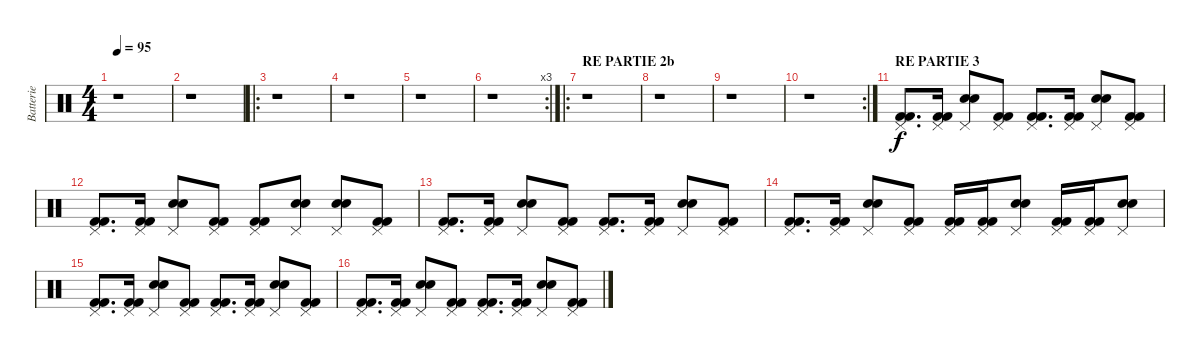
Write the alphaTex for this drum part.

\track ("Batterie" "Batterie") {instrument percussion}
\staff {score}
\articulation defaults
\ts (4 4)
\tempo 95
\clef neutral
\ks c
r.1{dy f} |
r.1 |
\ro
r.1 |
r.1 |
r.1 |
\rc 3
r.1 |
\ro
\section ("" "RE PARTIE 2b")
r.1 |
r.1 |
r.1 |
\rc 2
r.1 |
\section ("" "RE PARTIE 3")
("Pedal Hi-Hat (hit)" "Kick (hit) 2" "Kick (hit) 2").8{d} ("Pedal Hi-Hat (hit)" "Kick (hit) 2" "Kick (hit) 2").16 ("Pedal Hi-Hat (hit)" "Electric Snare (hit)" "Electric Snare (hit)").8 ("Pedal Hi-Hat (hit)" "Kick (hit) 2" "Kick (hit) 2").8 ("Pedal Hi-Hat (hit)" "Kick (hit) 2" "Kick (hit) 2").8{d} ("Pedal Hi-Hat (hit)" "Kick (hit) 2" "Kick (hit) 2").16 ("Pedal Hi-Hat (hit)" "Electric Snare (hit)" "Electric Snare (hit)").8 ("Pedal Hi-Hat (hit)" "Kick (hit) 2" "Kick (hit) 2").8 |
("Pedal Hi-Hat (hit)" "Kick (hit) 2" "Kick (hit) 2").8{d} ("Pedal Hi-Hat (hit)" "Kick (hit) 2" "Kick (hit) 2").16 ("Pedal Hi-Hat (hit)" "Electric Snare (hit)" "Electric Snare (hit)").8 ("Pedal Hi-Hat (hit)" "Kick (hit) 2" "Kick (hit) 2").8 ("Pedal Hi-Hat (hit)" "Kick (hit) 2" "Kick (hit) 2").8 ("Pedal Hi-Hat (hit)" "Electric Snare (hit)" "Electric Snare (hit)").8 ("Pedal Hi-Hat (hit)" "Electric Snare (hit)" "Electric Snare (hit)").8 ("Pedal Hi-Hat (hit)" "Kick (hit) 2" "Kick (hit) 2").8 |
("Pedal Hi-Hat (hit)" "Kick (hit) 2" "Kick (hit) 2").8{d} ("Pedal Hi-Hat (hit)" "Kick (hit) 2" "Kick (hit) 2").16 ("Pedal Hi-Hat (hit)" "Electric Snare (hit)" "Electric Snare (hit)").8 ("Pedal Hi-Hat (hit)" "Kick (hit) 2" "Kick (hit) 2").8 ("Pedal Hi-Hat (hit)" "Kick (hit) 2" "Kick (hit) 2").8{d} ("Pedal Hi-Hat (hit)" "Kick (hit) 2" "Kick (hit) 2").16 ("Pedal Hi-Hat (hit)" "Electric Snare (hit)" "Electric Snare (hit)").8 ("Pedal Hi-Hat (hit)" "Kick (hit) 2" "Kick (hit) 2").8 |
("Pedal Hi-Hat (hit)" "Kick (hit) 2" "Kick (hit) 2").8{d} ("Pedal Hi-Hat (hit)" "Kick (hit) 2" "Kick (hit) 2").16 ("Pedal Hi-Hat (hit)" "Electric Snare (hit)" "Electric Snare (hit)").8 ("Pedal Hi-Hat (hit)" "Kick (hit) 2" "Kick (hit) 2").8 ("Pedal Hi-Hat (hit)" "Kick (hit) 2" "Kick (hit) 2").16 ("Pedal Hi-Hat (hit)" "Kick (hit) 2" "Kick (hit) 2").16 ("Pedal Hi-Hat (hit)" "Electric Snare (hit)" "Electric Snare (hit)").8 ("Pedal Hi-Hat (hit)" "Kick (hit) 2" "Kick (hit) 2").16 ("Pedal Hi-Hat (hit)" "Kick (hit) 2" "Kick (hit) 2").16 ("Pedal Hi-Hat (hit)" "Electric Snare (hit)" "Electric Snare (hit)").8 |
("Pedal Hi-Hat (hit)" "Kick (hit) 2" "Kick (hit) 2").8{d} ("Pedal Hi-Hat (hit)" "Kick (hit) 2" "Kick (hit) 2").16 ("Pedal Hi-Hat (hit)" "Electric Snare (hit)" "Electric Snare (hit)").8 ("Pedal Hi-Hat (hit)" "Kick (hit) 2" "Kick (hit) 2").8 ("Pedal Hi-Hat (hit)" "Kick (hit) 2" "Kick (hit) 2").8{d} ("Pedal Hi-Hat (hit)" "Kick (hit) 2" "Kick (hit) 2").16 ("Pedal Hi-Hat (hit)" "Electric Snare (hit)" "Electric Snare (hit)").8 ("Pedal Hi-Hat (hit)" "Kick (hit) 2" "Kick (hit) 2").8 |
("Pedal Hi-Hat (hit)" "Kick (hit) 2" "Kick (hit) 2").8{d} ("Pedal Hi-Hat (hit)" "Kick (hit) 2" "Kick (hit) 2").16 ("Pedal Hi-Hat (hit)" "Electric Snare (hit)" "Electric Snare (hit)").8 ("Pedal Hi-Hat (hit)" "Kick (hit) 2" "Kick (hit) 2").8 ("Pedal Hi-Hat (hit)" "Kick (hit) 2" "Kick (hit) 2").8{d} ("Pedal Hi-Hat (hit)" "Kick (hit) 2" "Kick (hit) 2").16 ("Pedal Hi-Hat (hit)" "Electric Snare (hit)" "Electric Snare (hit)").8 ("Pedal Hi-Hat (hit)" "Kick (hit) 2" "Kick (hit) 2").8
